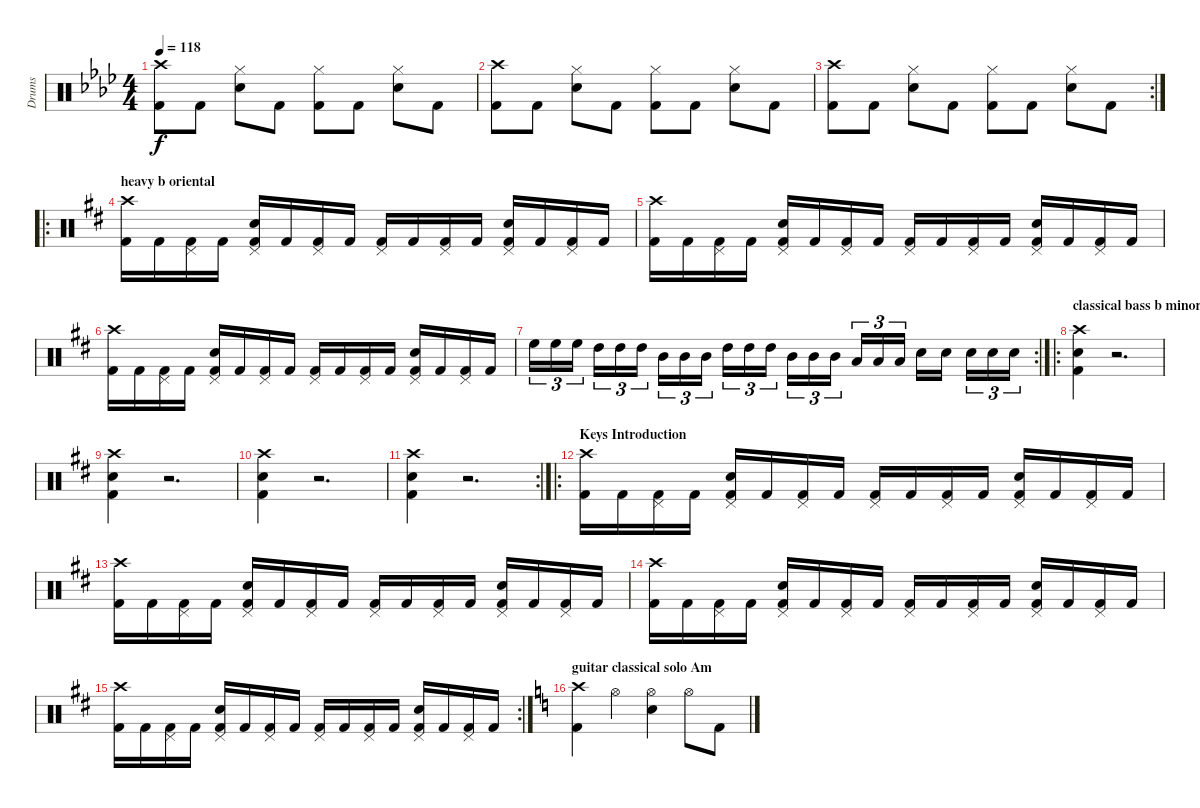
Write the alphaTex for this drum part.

\track ("Drums" "Drums") {instrument percussion}
\staff {score}
\articulation defaults
\ts (4 4)
\tempo 118
\clef neutral
\ks ab
("Crash high (hit)" "Kick (hit) 2").8{dy f} "Kick (hit) 2".8 ("Hi-Hat (closed)" "Electric Snare (hit)").8 "Kick (hit) 2".8 ("Hi-Hat (closed)" "Kick (hit) 2").8 "Kick (hit) 2".8 ("Hi-Hat (closed)" "Electric Snare (hit)").8 "Kick (hit) 2".8 |
("Crash high (hit)" "Kick (hit) 2").8 "Kick (hit) 2".8 ("Hi-Hat (closed)" "Electric Snare (hit)").8 "Kick (hit) 2".8 ("Hi-Hat (closed)" "Kick (hit) 2").8 "Kick (hit) 2".8 ("Hi-Hat (closed)" "Electric Snare (hit)").8 "Kick (hit) 2".8 |
\rc 2
("Crash high (hit)" "Kick (hit) 2").8 "Kick (hit) 2".8 ("Hi-Hat (closed)" "Electric Snare (hit)").8 "Kick (hit) 2".8 ("Hi-Hat (closed)" "Kick (hit) 2").8 "Kick (hit) 2".8 ("Hi-Hat (closed)" "Electric Snare (hit)").8 "Kick (hit) 2".8 |
\ro
\section ("" "heavy b oriental")
\ks bminor
("Crash high (hit)" "Kick (hit) 2").16 "Kick (hit) 2".16 ("Pedal Hi-Hat (hit)" "Kick (hit) 2").16 "Kick (hit) 2".16 ("Pedal Hi-Hat (hit)" "Electric Snare (hit)" "Kick (hit) 2").16 "Kick (hit) 2".16 ("Pedal Hi-Hat (hit)" "Kick (hit) 2").16 "Kick (hit) 2".16 ("Pedal Hi-Hat (hit)" "Kick (hit) 2").16 "Kick (hit) 2".16 ("Pedal Hi-Hat (hit)" "Kick (hit) 2").16 "Kick (hit) 2".16 ("Pedal Hi-Hat (hit)" "Electric Snare (hit)" "Kick (hit) 2").16 "Kick (hit) 2".16 ("Pedal Hi-Hat (hit)" "Kick (hit) 2").16 "Kick (hit) 2".16 |
("Crash high (hit)" "Kick (hit) 2").16 "Kick (hit) 2".16 ("Pedal Hi-Hat (hit)" "Kick (hit) 2").16 "Kick (hit) 2".16 ("Pedal Hi-Hat (hit)" "Electric Snare (hit)" "Kick (hit) 2").16 "Kick (hit) 2".16 ("Pedal Hi-Hat (hit)" "Kick (hit) 2").16 "Kick (hit) 2".16 ("Pedal Hi-Hat (hit)" "Kick (hit) 2").16 "Kick (hit) 2".16 ("Pedal Hi-Hat (hit)" "Kick (hit) 2").16 "Kick (hit) 2".16 ("Pedal Hi-Hat (hit)" "Electric Snare (hit)" "Kick (hit) 2").16 "Kick (hit) 2".16 ("Pedal Hi-Hat (hit)" "Kick (hit) 2").16 "Kick (hit) 2".16 |
("Crash high (hit)" "Kick (hit) 2").16 "Kick (hit) 2".16 ("Pedal Hi-Hat (hit)" "Kick (hit) 2").16 "Kick (hit) 2".16 ("Pedal Hi-Hat (hit)" "Electric Snare (hit)" "Kick (hit) 2").16 "Kick (hit) 2".16 ("Pedal Hi-Hat (hit)" "Kick (hit) 2").16 "Kick (hit) 2".16 ("Pedal Hi-Hat (hit)" "Kick (hit) 2").16 "Kick (hit) 2".16 ("Pedal Hi-Hat (hit)" "Kick (hit) 2").16 "Kick (hit) 2".16 ("Pedal Hi-Hat (hit)" "Electric Snare (hit)" "Kick (hit) 2").16 "Kick (hit) 2".16 ("Pedal Hi-Hat (hit)" "Kick (hit) 2").16 "Kick (hit) 2".16 |
\rc 2 "High Floor Tom (hit)".16{tu (3 2)} "High Floor Tom (hit)".16{tu (3 2)} "High Floor Tom (hit)".16{tu (3 2)} "High Tom (hit)".16{tu (3 2)} "High Tom (hit)".16{tu (3 2)} "High Tom (hit)".16{tu (3 2)} "Mid Tom (hit)".16{tu (3 2)} "Mid Tom (hit)".16{tu (3 2)} "Mid Tom (hit)".16{tu (3 2)} "High Tom (hit)".16{tu (3 2)} "High Tom (hit)".16{tu (3 2)} "High Tom (hit)".16{tu (3 2)} "Mid Tom (hit)".16{tu (3 2)} "Mid Tom (hit)".16{tu (3 2)} "Mid Tom (hit)".16{tu (3 2)} "Low Tom (hit)".16{tu (3 2)} "Low Tom (hit)".16{tu (3 2)} "Low Tom (hit)".16{tu (3 2)} "Electric Snare (hit)".16 "Electric Snare (hit)".16 "Electric Snare (hit)".16{tu (3 2)} "Electric Snare (hit)".16{tu (3 2)} "Electric Snare (hit)".16{tu (3 2)}
|
\ro
\section ("" "classical bass b minor with harmonic minor end")
("Crash high (hit)" "Electric Snare (hit)" "Kick (hit) 2").4 r.2{d} |
("Crash high (hit)" "Electric Snare (hit)" "Kick (hit) 2").4 r.2{d} |
("Crash high (hit)" "Electric Snare (hit)" "Kick (hit) 2").4 r.2{d} |
\rc 2
("Crash high (hit)" "Electric Snare (hit)" "Kick (hit) 2").4 r.2{d} |
\ro
\section ("" "Keys Introduction")
("Crash high (hit)" "Kick (hit) 2").16 "Kick (hit) 2".16 ("Pedal Hi-Hat (hit)" "Kick (hit) 2").16 "Kick (hit) 2".16 ("Pedal Hi-Hat (hit)" "Electric Snare (hit)" "Kick (hit) 2").16 "Kick (hit) 2".16 ("Pedal Hi-Hat (hit)" "Kick (hit) 2").16 "Kick (hit) 2".16 ("Pedal Hi-Hat (hit)" "Kick (hit) 2").16 "Kick (hit) 2".16 ("Pedal Hi-Hat (hit)" "Kick (hit) 2").16 "Kick (hit) 2".16 ("Pedal Hi-Hat (hit)" "Electric Snare (hit)" "Kick (hit) 2").16 "Kick (hit) 2".16 ("Pedal Hi-Hat (hit)" "Kick (hit) 2").16 "Kick (hit) 2".16 |
("Crash high (hit)" "Kick (hit) 2").16 "Kick (hit) 2".16 ("Pedal Hi-Hat (hit)" "Kick (hit) 2").16 "Kick (hit) 2".16 ("Pedal Hi-Hat (hit)" "Electric Snare (hit)" "Kick (hit) 2").16 "Kick (hit) 2".16 ("Pedal Hi-Hat (hit)" "Kick (hit) 2").16 "Kick (hit) 2".16 ("Pedal Hi-Hat (hit)" "Kick (hit) 2").16 "Kick (hit) 2".16 ("Pedal Hi-Hat (hit)" "Kick (hit) 2").16 "Kick (hit) 2".16 ("Pedal Hi-Hat (hit)" "Electric Snare (hit)" "Kick (hit) 2").16 "Kick (hit) 2".16 ("Pedal Hi-Hat (hit)" "Kick (hit) 2").16 "Kick (hit) 2".16 |
("Crash high (hit)" "Kick (hit) 2").16 "Kick (hit) 2".16 ("Pedal Hi-Hat (hit)" "Kick (hit) 2").16 "Kick (hit) 2".16 ("Pedal Hi-Hat (hit)" "Electric Snare (hit)" "Kick (hit) 2").16 "Kick (hit) 2".16 ("Pedal Hi-Hat (hit)" "Kick (hit) 2").16 "Kick (hit) 2".16 ("Pedal Hi-Hat (hit)" "Kick (hit) 2").16 "Kick (hit) 2".16 ("Pedal Hi-Hat (hit)" "Kick (hit) 2").16 "Kick (hit) 2".16 ("Pedal Hi-Hat (hit)" "Electric Snare (hit)" "Kick (hit) 2").16 "Kick (hit) 2".16 ("Pedal Hi-Hat (hit)" "Kick (hit) 2").16 "Kick (hit) 2".16 |
\rc 2
("Crash high (hit)" "Kick (hit) 2").16 "Kick (hit) 2".16 ("Pedal Hi-Hat (hit)" "Kick (hit) 2").16 "Kick (hit) 2".16 ("Pedal Hi-Hat (hit)" "Electric Snare (hit)" "Kick (hit) 2").16 "Kick (hit) 2".16 ("Pedal Hi-Hat (hit)" "Kick (hit) 2").16 "Kick (hit) 2".16 ("Pedal Hi-Hat (hit)" "Kick (hit) 2").16 "Kick (hit) 2".16 ("Pedal Hi-Hat (hit)" "Kick (hit) 2").16 "Kick (hit) 2".16 ("Pedal Hi-Hat (hit)" "Electric Snare (hit)" "Kick (hit) 2").16 "Kick (hit) 2".16 ("Pedal Hi-Hat (hit)" "Kick (hit) 2").16 "Kick (hit) 2".16 |
\section ("" "guitar classical solo Am")
\ks aminor
("Crash high (hit)" "Kick (hit) 2").4 "Hi-Hat (open)".4 ("Hi-Hat (open)" "Electric Snare (hit)").4 "Hi-Hat (open)".8 "Kick (hit) 2".8
